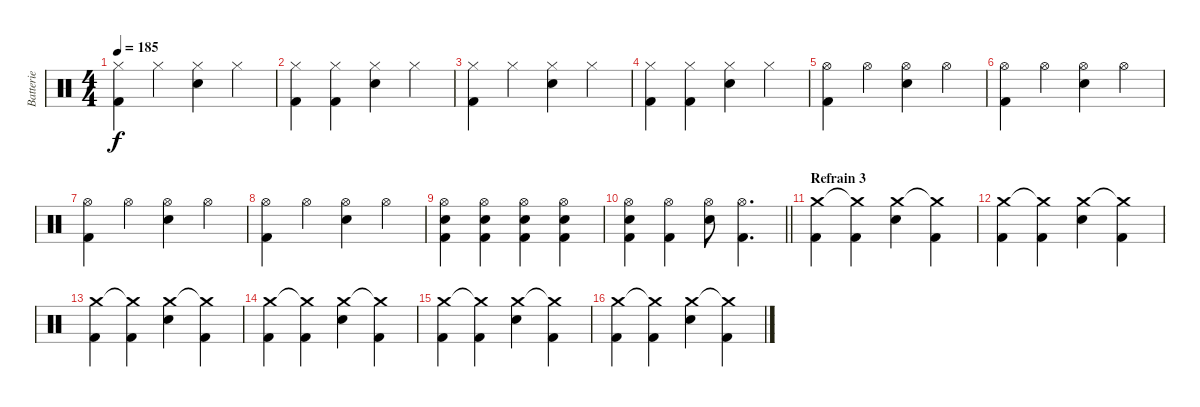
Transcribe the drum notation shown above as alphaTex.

\track ("Batterie" "Batterie") {instrument percussion}
\staff {score}
\articulation defaults
\ts (4 4)
\tempo 185
\clef neutral
\ks c
("Hi-Hat (closed)" "Kick (hit) 2").4{dy f} "Hi-Hat (closed)".4 ("Hi-Hat (closed)" "Electric Snare (hit)").4 "Hi-Hat (closed)".4 |
("Hi-Hat (closed)" "Kick (hit) 2").4 ("Hi-Hat (closed)" "Kick (hit) 2").4 ("Hi-Hat (closed)" "Electric Snare (hit)").4 "Hi-Hat (closed)".4 |
("Hi-Hat (closed)" "Kick (hit) 2").4 "Hi-Hat (closed)".4 ("Hi-Hat (closed)" "Electric Snare (hit)").4 "Hi-Hat (closed)".4 |
("Hi-Hat (closed)" "Kick (hit) 2").4 ("Hi-Hat (closed)" "Kick (hit) 2").4 ("Hi-Hat (closed)" "Electric Snare (hit)").4 "Hi-Hat (closed)".4 |
("Hi-Hat (open)" "Kick (hit) 2").4 "Hi-Hat (open)".4 ("Hi-Hat (open)" "Electric Snare (hit)").4 "Hi-Hat (open)".4 |
("Hi-Hat (open)" "Kick (hit) 2").4 "Hi-Hat (open)".4 ("Hi-Hat (open)" "Electric Snare (hit)").4 "Hi-Hat (open)".4 |
("Hi-Hat (open)" "Kick (hit) 2").4 "Hi-Hat (open)".4 ("Hi-Hat (open)" "Electric Snare (hit)").4 "Hi-Hat (open)".4 |
("Hi-Hat (open)" "Kick (hit) 2").4 "Hi-Hat (open)".4 ("Hi-Hat (open)" "Electric Snare (hit)").4 "Hi-Hat (open)".4 |
("Hi-Hat (open)" "Electric Snare (hit)" "Kick (hit) 2").4 ("Hi-Hat (open)" "Electric Snare (hit)" "Kick (hit) 2").4 ("Hi-Hat (open)" "Electric Snare (hit)" "Kick (hit) 2").4 ("Hi-Hat (open)" "Electric Snare (hit)" "Kick (hit) 2").4 |
\barLineRight lightlight
("Hi-Hat (open)" "Electric Snare (hit)" "Kick (hit) 2").4 ("Hi-Hat (open)" "Kick (hit) 2").4 ("Hi-Hat (open)" "Electric Snare (hit)").8 ("Hi-Hat (open)" "Kick (hit) 2").4{d} |
\section ("" "Refrain 3")
("Crash medium (hit)" "Kick (hit) 2").4 ("Crash medium (hit)"{t} "Kick (hit) 2").4 ("Crash medium (hit)" "Electric Snare (hit)").4 ("Crash medium (hit)"{t} "Kick (hit) 2").4 |
("Crash medium (hit)" "Kick (hit) 2").4 ("Crash medium (hit)"{t} "Kick (hit) 2").4 ("Crash medium (hit)" "Electric Snare (hit)").4 ("Crash medium (hit)"{t} "Kick (hit) 2").4 |
("Crash medium (hit)" "Kick (hit) 2").4 ("Crash medium (hit)"{t} "Kick (hit) 2").4 ("Crash medium (hit)" "Electric Snare (hit)").4 ("Crash medium (hit)"{t} "Kick (hit) 2").4 |
("Crash medium (hit)" "Kick (hit) 2").4 ("Crash medium (hit)"{t} "Kick (hit) 2").4 ("Crash medium (hit)" "Electric Snare (hit)").4 ("Crash medium (hit)"{t} "Kick (hit) 2").4 |
("Crash medium (hit)" "Kick (hit) 2").4 ("Crash medium (hit)"{t} "Kick (hit) 2").4 ("Crash medium (hit)" "Electric Snare (hit)").4 ("Crash medium (hit)"{t} "Kick (hit) 2").4 |
("Crash medium (hit)" "Kick (hit) 2").4 ("Crash medium (hit)"{t} "Kick (hit) 2").4 ("Crash medium (hit)" "Electric Snare (hit)").4 ("Crash medium (hit)"{t} "Kick (hit) 2").4
